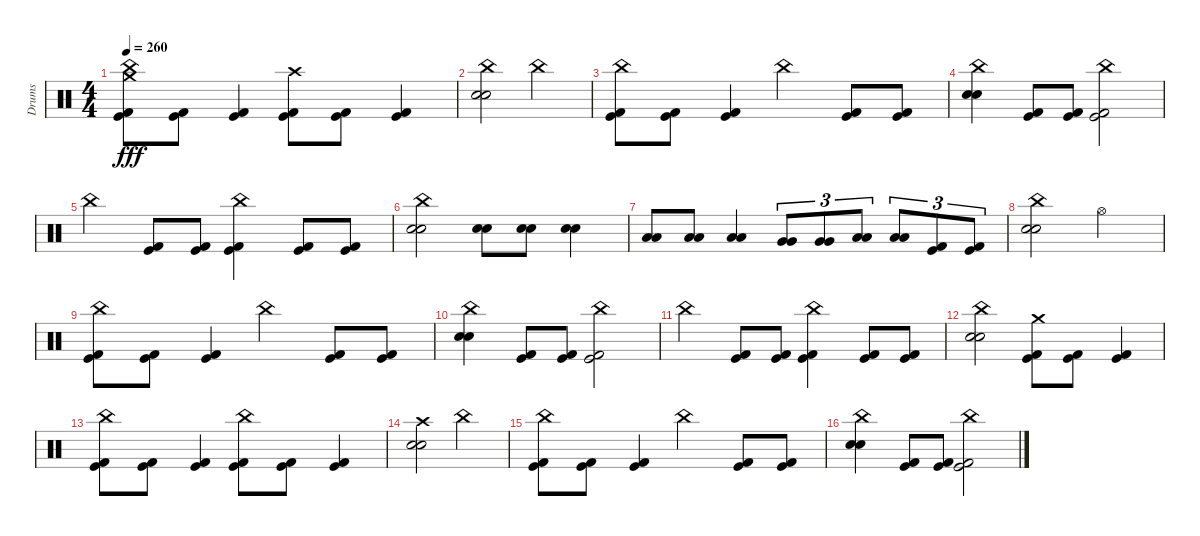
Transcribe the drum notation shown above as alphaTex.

\track ("Drums" "Drums") {instrument percussion}
\staff {score}
\articulation defaults
\ts (4 4)
\tempo 260
\clef neutral
\ks c
("Kick (hit)" "Kick (hit) 2" "China (hit)" "Crash medium (hit)").8{dy fff} ("Kick (hit)" "Kick (hit) 2").8 ("Kick (hit)" "Kick (hit) 2").4 ("Kick (hit)" "Kick (hit) 2" "Crash high (hit)").8 ("Kick (hit)" "Kick (hit) 2").8 ("Kick (hit)" "Kick (hit) 2").4 |
("Electric Snare (hit)" "Electric Snare (hit)" "China (hit)").2 "China (hit)".2 |
("Kick (hit)" "Kick (hit) 2" "China (hit)").8 ("Kick (hit)" "Kick (hit) 2").8 ("Kick (hit)" "Kick (hit) 2").4 "China (hit)".4 ("Kick (hit)" "Kick (hit) 2").8 ("Kick (hit)" "Kick (hit) 2").8 |
("Electric Snare (hit)" "Electric Snare (hit)" "China (hit)").4 ("Kick (hit)" "Kick (hit) 2").8 ("Kick (hit)" "Kick (hit) 2").8 ("Kick (hit)" "Kick (hit) 2" "China (hit)").2 |
"China (hit)".4 ("Kick (hit)" "Kick (hit) 2").8 ("Kick (hit)" "Kick (hit) 2").8 ("Kick (hit)" "Kick (hit) 2" "China (hit)").4 ("Kick (hit)" "Kick (hit) 2").8 ("Kick (hit)" "Kick (hit) 2").8 |
("Electric Snare (hit)" "Electric Snare (hit)" "China (hit)").2 ("Electric Snare (hit)" "Electric Snare (hit)").8 ("Electric Snare (hit)" "Electric Snare (hit)").8 ("Electric Snare (hit)" "Electric Snare (hit)").4 |
("Low Tom (hit)" "Low Tom (hit)").8 ("Low Tom (hit)" "Low Tom (hit)").8 ("Low Tom (hit)" "Low Tom (hit)").4 ("Very Low Tom (hit)" "Very Low Tom (hit)").8{tu (3 2)} ("Very Low Tom (hit)" "Very Low Tom (hit)").8{tu (3 2)} ("Low Floor Tom (hit)" "Low Floor Tom (hit)").8{tu (3 2)} ("Low Floor Tom (hit)" "Low Floor Tom (hit)").8{tu (3 2)} ("Kick (hit)" "Kick (hit) 2").8{tu (3 2)} ("Kick (hit)" "Kick (hit) 2").8{tu (3 2)} |
("Electric Snare (hit)" "Electric Snare (hit)" "China (hit)").2 "Hi-Hat (open)".2 |
("Kick (hit)" "Kick (hit) 2" "China (hit)").8 ("Kick (hit)" "Kick (hit) 2").8 ("Kick (hit)" "Kick (hit) 2").4 "China (hit)".4 ("Kick (hit)" "Kick (hit) 2").8 ("Kick (hit)" "Kick (hit) 2").8 |
("Electric Snare (hit)" "Electric Snare (hit)" "China (hit)").4 ("Kick (hit)" "Kick (hit) 2").8 ("Kick (hit)" "Kick (hit) 2").8 ("Kick (hit)" "Kick (hit) 2" "China (hit)").2 |
"China (hit)".4 ("Kick (hit)" "Kick (hit) 2").8 ("Kick (hit)" "Kick (hit) 2").8 ("Kick (hit)" "Kick (hit) 2" "China (hit)").4 ("Kick (hit)" "Kick (hit) 2").8 ("Kick (hit)" "Kick (hit) 2").8 |
("Electric Snare (hit)" "Electric Snare (hit)" "China (hit)").2 ("Kick (hit)" "Kick (hit) 2" "Crash medium (hit)").8 ("Kick (hit)" "Kick (hit) 2").8 ("Kick (hit)" "Kick (hit) 2").4 |
("Kick (hit)" "Kick (hit) 2" "China (hit)").8 ("Kick (hit)" "Kick (hit) 2").8 ("Kick (hit)" "Kick (hit) 2").4 ("Kick (hit)" "Kick (hit) 2" "China (hit)").8 ("Kick (hit)" "Kick (hit) 2").8 ("Kick (hit)" "Kick (hit) 2").4 |
("Electric Snare (hit)" "Electric Snare (hit)" "Crash high (hit)").2 "China (hit)".2 |
("Kick (hit)" "Kick (hit) 2" "China (hit)").8 ("Kick (hit)" "Kick (hit) 2").8 ("Kick (hit)" "Kick (hit) 2").4 "China (hit)".4 ("Kick (hit)" "Kick (hit) 2").8 ("Kick (hit)" "Kick (hit) 2").8 |
("Electric Snare (hit)" "Electric Snare (hit)" "China (hit)").4 ("Kick (hit)" "Kick (hit) 2").8 ("Kick (hit)" "Kick (hit) 2").8 ("Kick (hit)" "Kick (hit) 2" "China (hit)").2
